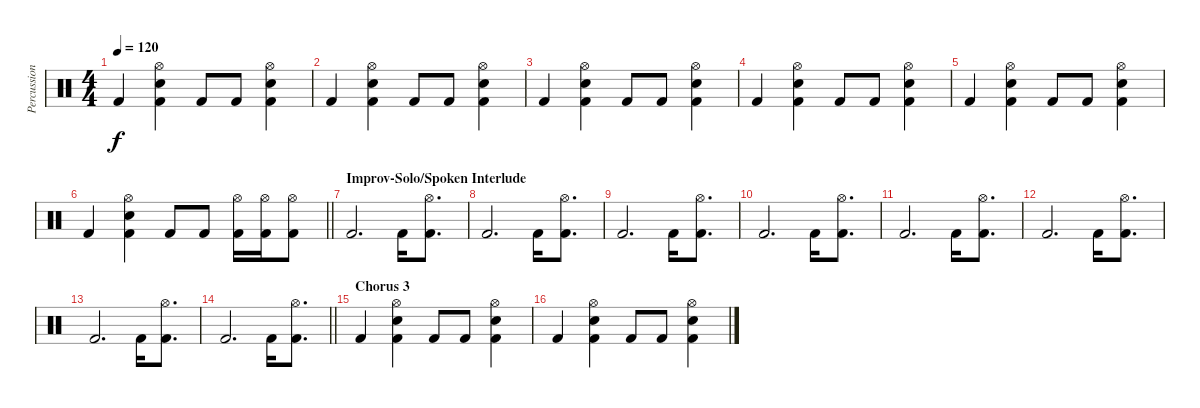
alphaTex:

\track ("Percussion" "Percussion") {instrument percussion}
\staff {score}
\articulation defaults
\ts (4 4)
\tempo 120
\clef neutral
\ks c "Kick (hit) 2".4{dy f}
("Electric Snare (hit)" "Hi-Hat (open)" "Kick (hit) 2").4 "Kick (hit) 2".8 "Kick (hit) 2".8 ("Electric Snare (hit)" "Hi-Hat (open)" "Kick (hit) 2").4 |
"Kick (hit) 2".4 ("Electric Snare (hit)" "Hi-Hat (open)" "Kick (hit) 2").4 "Kick (hit) 2".8 "Kick (hit) 2".8 ("Electric Snare (hit)" "Hi-Hat (open)" "Kick (hit) 2").4 |
"Kick (hit) 2".4 ("Electric Snare (hit)" "Hi-Hat (open)" "Kick (hit) 2").4 "Kick (hit) 2".8 "Kick (hit) 2".8 ("Electric Snare (hit)" "Hi-Hat (open)" "Kick (hit) 2").4 |
"Kick (hit) 2".4 ("Electric Snare (hit)" "Hi-Hat (open)" "Kick (hit) 2").4 "Kick (hit) 2".8 "Kick (hit) 2".8 ("Electric Snare (hit)" "Hi-Hat (open)" "Kick (hit) 2").4 |
"Kick (hit) 2".4 ("Electric Snare (hit)" "Hi-Hat (open)" "Kick (hit) 2").4 "Kick (hit) 2".8 "Kick (hit) 2".8 ("Electric Snare (hit)" "Hi-Hat (open)" "Kick (hit) 2").4 |
\barLineRight lightlight "Kick (hit) 2".4
("Electric Snare (hit)" "Hi-Hat (open)" "Kick (hit) 2").4 "Kick (hit) 2".8 "Kick (hit) 2".8 ("Hi-Hat (open)" "Kick (hit) 2").16 ("Hi-Hat (open)" "Kick (hit) 2").16 ("Hi-Hat (open)" "Kick (hit) 2").8 |
\section ("" "Improv-Solo/Spoken Interlude")
"Kick (hit) 2".2{d} "Kick (hit) 2".16 ("Hi-Hat (open)" "Kick (hit) 2").8{d} |
"Kick (hit) 2".2{d} "Kick (hit) 2".16 ("Hi-Hat (open)" "Kick (hit) 2").8{d} |
"Kick (hit) 2".2{d} "Kick (hit) 2".16 ("Hi-Hat (open)" "Kick (hit) 2").8{d} |
"Kick (hit) 2".2{d} "Kick (hit) 2".16 ("Hi-Hat (open)" "Kick (hit) 2").8{d} |
"Kick (hit) 2".2{d} "Kick (hit) 2".16 ("Hi-Hat (open)" "Kick (hit) 2").8{d} |
"Kick (hit) 2".2{d} "Kick (hit) 2".16 ("Hi-Hat (open)" "Kick (hit) 2").8{d} |
"Kick (hit) 2".2{d} "Kick (hit) 2".16 ("Hi-Hat (open)" "Kick (hit) 2").8{d} |
\barLineRight lightlight "Kick (hit) 2".2{d} "Kick (hit) 2".16
("Hi-Hat (open)" "Kick (hit) 2").8{d} |
\section ("" "Chorus 3")
"Kick (hit) 2".4 ("Electric Snare (hit)" "Hi-Hat (open)" "Kick (hit) 2").4 "Kick (hit) 2".8 "Kick (hit) 2".8 ("Electric Snare (hit)" "Hi-Hat (open)" "Kick (hit) 2").4 |
"Kick (hit) 2".4 ("Electric Snare (hit)" "Hi-Hat (open)" "Kick (hit) 2").4 "Kick (hit) 2".8 "Kick (hit) 2".8 ("Electric Snare (hit)" "Hi-Hat (open)" "Kick (hit) 2").4
